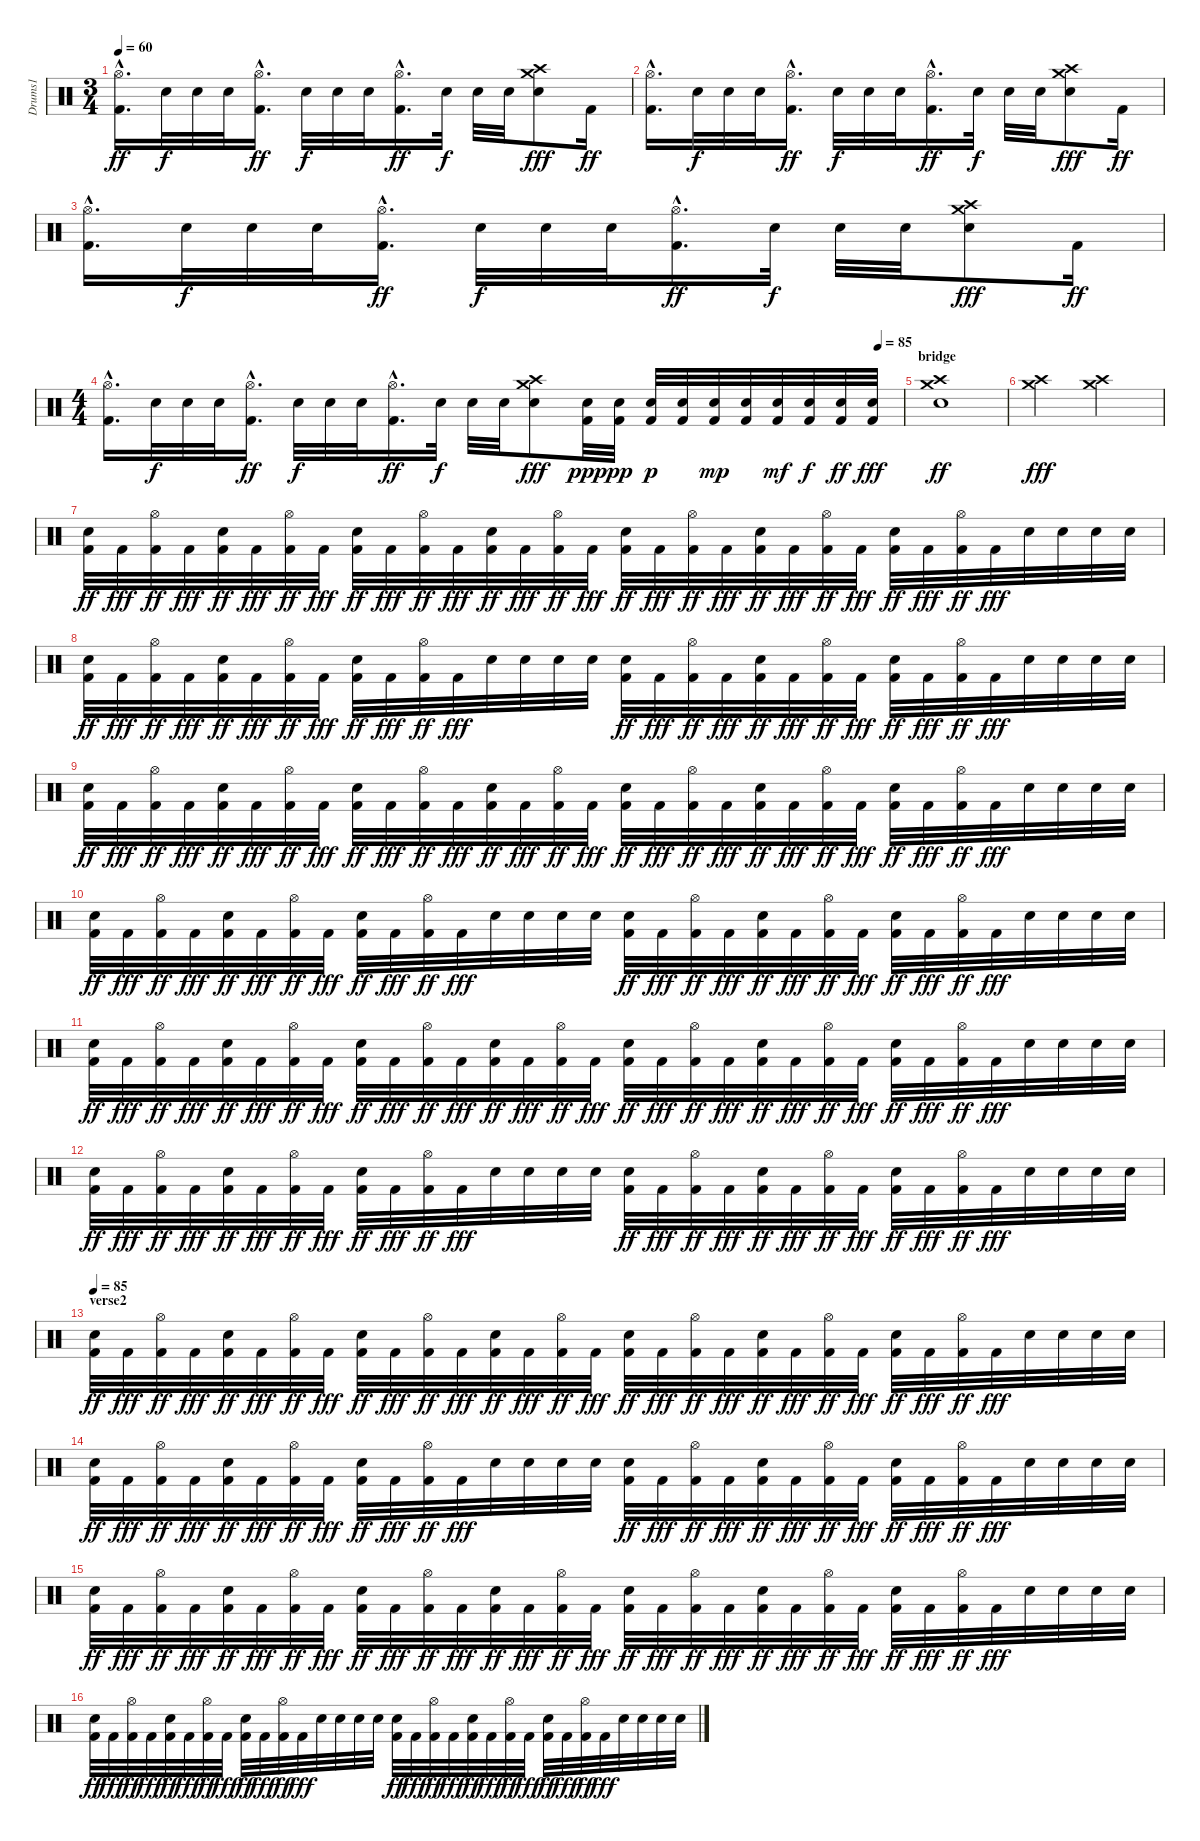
\track ("Drums1" "Drums1") {instrument percussion}
\staff {score}
\articulation defaults
\ts (3 4)
\tempo 60
\clef neutral
\ks c
("Hi-Hat (open)"{hac} "Kick (hit) 2"{hac}).16{d dy ff} "Electric Snare (hit)".32{dy f} "Electric Snare (hit)".32 "Electric Snare (hit)".32 ("Hi-Hat (open)"{hac} "Kick (hit) 2"{hac}).16{d dy ff} "Electric Snare (hit)".32{dy f} "Electric Snare (hit)".32 "Electric Snare (hit)".32 ("Hi-Hat (open)"{hac} "Kick (hit) 2"{hac}).16{d dy ff} "Electric Snare (hit)".32{dy f} "Electric Snare (hit)".32 "Electric Snare (hit)".32 ("Crash medium (hit)" "Electric Snare (hit)" "Crash high (hit)").8{dy fff} "Kick (hit) 2".16{dy ff} |
("Hi-Hat (open)"{hac} "Kick (hit) 2"{hac}).16{d} "Electric Snare (hit)".32{dy f} "Electric Snare (hit)".32 "Electric Snare (hit)".32 ("Hi-Hat (open)"{hac} "Kick (hit) 2"{hac}).16{d dy ff} "Electric Snare (hit)".32{dy f} "Electric Snare (hit)".32 "Electric Snare (hit)".32 ("Hi-Hat (open)"{hac} "Kick (hit) 2"{hac}).16{d dy ff} "Electric Snare (hit)".32{dy f} "Electric Snare (hit)".32 "Electric Snare (hit)".32 ("Crash medium (hit)" "Electric Snare (hit)" "Crash high (hit)").8{dy fff} "Kick (hit) 2".16{dy ff} |
("Hi-Hat (open)"{hac} "Kick (hit) 2"{hac}).16{d} "Electric Snare (hit)".32{dy f} "Electric Snare (hit)".32 "Electric Snare (hit)".32 ("Hi-Hat (open)"{hac} "Kick (hit) 2"{hac}).16{d dy ff} "Electric Snare (hit)".32{dy f} "Electric Snare (hit)".32 "Electric Snare (hit)".32 ("Hi-Hat (open)"{hac} "Kick (hit) 2"{hac}).16{d dy ff} "Electric Snare (hit)".32{dy f} "Electric Snare (hit)".32 "Electric Snare (hit)".32 ("Crash medium (hit)" "Electric Snare (hit)" "Crash high (hit)").8{dy fff} "Kick (hit) 2".16{dy ff} |
\ts (4 4)
\tempo (85 0.96875)
("Hi-Hat (open)"{hac} "Kick (hit) 2"{hac}).16{d} "Electric Snare (hit)".32{dy f} "Electric Snare (hit)".32 "Electric Snare (hit)".32 ("Hi-Hat (open)"{hac} "Kick (hit) 2"{hac}).16{d dy ff} "Electric Snare (hit)".32{dy f} "Electric Snare (hit)".32 "Electric Snare (hit)".32 ("Hi-Hat (open)"{hac} "Kick (hit) 2"{hac}).16{d dy ff} "Electric Snare (hit)".32{dy f} "Electric Snare (hit)".32 "Electric Snare (hit)".32 ("Crash medium (hit)" "Electric Snare (hit)" "Crash high (hit)").8{dy fff} ("Electric Snare (hit)" "Kick (hit) 2").32{dy ppp} ("Electric Snare (hit)" "Kick (hit) 2").32{dy pp} ("Electric Snare (hit)" "Kick (hit) 2").32{dy p} ("Electric Snare (hit)" "Kick (hit) 2").32 ("Electric Snare (hit)" "Kick (hit) 2").32{dy mp} ("Electric Snare (hit)" "Kick (hit) 2").32 ("Electric Snare (hit)" "Kick (hit) 2").32{dy mf} ("Electric Snare (hit)" "Kick (hit) 2").32{dy f} ("Electric Snare (hit)" "Kick (hit) 2").32{dy ff} ("Electric Snare (hit)" "Kick (hit) 2").32{dy fff} |
\section ("" "bridge")
("Crash high (hit)" "Crash medium (hit)" "Electric Snare (hit)").1{dy ff} |
("Crash medium (hit)" "Crash high (hit)").2{dy fff} ("Crash medium (hit)" "Crash high (hit)").2 |
("Kick (hit) 2" "Electric Snare (hit)").32{dy ff} "Kick (hit) 2".32{dy fff} ("Kick (hit) 2" "Hi-Hat (open)").32{dy ff} "Kick (hit) 2".32{dy fff} ("Kick (hit) 2" "Electric Snare (hit)").32{dy ff} "Kick (hit) 2".32{dy fff} ("Kick (hit) 2" "Hi-Hat (open)").32{dy ff} "Kick (hit) 2".32{dy fff} ("Kick (hit) 2" "Electric Snare (hit)").32{dy ff} "Kick (hit) 2".32{dy fff} ("Kick (hit) 2" "Hi-Hat (open)").32{dy ff} "Kick (hit) 2".32{dy fff} ("Kick (hit) 2" "Electric Snare (hit)").32{dy ff} "Kick (hit) 2".32{dy fff} ("Kick (hit) 2" "Hi-Hat (open)").32{dy ff} "Kick (hit) 2".32{dy fff} ("Kick (hit) 2" "Electric Snare (hit)").32{dy ff} "Kick (hit) 2".32{dy fff} ("Kick (hit) 2" "Hi-Hat (open)").32{dy ff} "Kick (hit) 2".32{dy fff} ("Kick (hit) 2" "Electric Snare (hit)").32{dy ff} "Kick (hit) 2".32{dy fff} ("Kick (hit) 2" "Hi-Hat (open)").32{dy ff} "Kick (hit) 2".32{dy fff} ("Kick (hit) 2" "Electric Snare (hit)").32{dy ff} "Kick (hit) 2".32{dy fff} ("Kick (hit) 2" "Hi-Hat (open)").32{dy ff} "Kick (hit) 2".32{dy fff} "Electric Snare (hit)".32 "Electric Snare (hit)".32 "Electric Snare (hit)".32 "Electric Snare (hit)".32 |
("Kick (hit) 2" "Electric Snare (hit)").32{dy ff} "Kick (hit) 2".32{dy fff} ("Kick (hit) 2" "Hi-Hat (open)").32{dy ff} "Kick (hit) 2".32{dy fff} ("Kick (hit) 2" "Electric Snare (hit)").32{dy ff} "Kick (hit) 2".32{dy fff} ("Kick (hit) 2" "Hi-Hat (open)").32{dy ff} "Kick (hit) 2".32{dy fff} ("Kick (hit) 2" "Electric Snare (hit)").32{dy ff} "Kick (hit) 2".32{dy fff} ("Kick (hit) 2" "Hi-Hat (open)").32{dy ff} "Kick (hit) 2".32{dy fff} "Electric Snare (hit)".32 "Electric Snare (hit)".32 "Electric Snare (hit)".32 "Electric Snare (hit)".32 ("Kick (hit) 2" "Electric Snare (hit)").32{dy ff} "Kick (hit) 2".32{dy fff} ("Kick (hit) 2" "Hi-Hat (open)").32{dy ff} "Kick (hit) 2".32{dy fff} ("Kick (hit) 2" "Electric Snare (hit)").32{dy ff} "Kick (hit) 2".32{dy fff} ("Kick (hit) 2" "Hi-Hat (open)").32{dy ff} "Kick (hit) 2".32{dy fff} ("Kick (hit) 2" "Electric Snare (hit)").32{dy ff} "Kick (hit) 2".32{dy fff} ("Kick (hit) 2" "Hi-Hat (open)").32{dy ff} "Kick (hit) 2".32{dy fff} "Electric Snare (hit)".32 "Electric Snare (hit)".32 "Electric Snare (hit)".32 "Electric Snare (hit)".32 |
("Kick (hit) 2" "Electric Snare (hit)").32{dy ff} "Kick (hit) 2".32{dy fff} ("Kick (hit) 2" "Hi-Hat (open)").32{dy ff} "Kick (hit) 2".32{dy fff} ("Kick (hit) 2" "Electric Snare (hit)").32{dy ff} "Kick (hit) 2".32{dy fff} ("Kick (hit) 2" "Hi-Hat (open)").32{dy ff} "Kick (hit) 2".32{dy fff} ("Kick (hit) 2" "Electric Snare (hit)").32{dy ff} "Kick (hit) 2".32{dy fff} ("Kick (hit) 2" "Hi-Hat (open)").32{dy ff} "Kick (hit) 2".32{dy fff} ("Kick (hit) 2" "Electric Snare (hit)").32{dy ff} "Kick (hit) 2".32{dy fff} ("Kick (hit) 2" "Hi-Hat (open)").32{dy ff} "Kick (hit) 2".32{dy fff} ("Kick (hit) 2" "Electric Snare (hit)").32{dy ff} "Kick (hit) 2".32{dy fff} ("Kick (hit) 2" "Hi-Hat (open)").32{dy ff} "Kick (hit) 2".32{dy fff} ("Kick (hit) 2" "Electric Snare (hit)").32{dy ff} "Kick (hit) 2".32{dy fff} ("Kick (hit) 2" "Hi-Hat (open)").32{dy ff} "Kick (hit) 2".32{dy fff} ("Kick (hit) 2" "Electric Snare (hit)").32{dy ff} "Kick (hit) 2".32{dy fff} ("Kick (hit) 2" "Hi-Hat (open)").32{dy ff} "Kick (hit) 2".32{dy fff} "Electric Snare (hit)".32 "Electric Snare (hit)".32 "Electric Snare (hit)".32 "Electric Snare (hit)".32 |
("Kick (hit) 2" "Electric Snare (hit)").32{dy ff} "Kick (hit) 2".32{dy fff} ("Kick (hit) 2" "Hi-Hat (open)").32{dy ff} "Kick (hit) 2".32{dy fff} ("Kick (hit) 2" "Electric Snare (hit)").32{dy ff} "Kick (hit) 2".32{dy fff} ("Kick (hit) 2" "Hi-Hat (open)").32{dy ff} "Kick (hit) 2".32{dy fff} ("Kick (hit) 2" "Electric Snare (hit)").32{dy ff} "Kick (hit) 2".32{dy fff} ("Kick (hit) 2" "Hi-Hat (open)").32{dy ff} "Kick (hit) 2".32{dy fff} "Electric Snare (hit)".32 "Electric Snare (hit)".32 "Electric Snare (hit)".32 "Electric Snare (hit)".32 ("Kick (hit) 2" "Electric Snare (hit)").32{dy ff} "Kick (hit) 2".32{dy fff} ("Kick (hit) 2" "Hi-Hat (open)").32{dy ff} "Kick (hit) 2".32{dy fff} ("Kick (hit) 2" "Electric Snare (hit)").32{dy ff} "Kick (hit) 2".32{dy fff} ("Kick (hit) 2" "Hi-Hat (open)").32{dy ff} "Kick (hit) 2".32{dy fff} ("Kick (hit) 2" "Electric Snare (hit)").32{dy ff} "Kick (hit) 2".32{dy fff} ("Kick (hit) 2" "Hi-Hat (open)").32{dy ff} "Kick (hit) 2".32{dy fff} "Electric Snare (hit)".32 "Electric Snare (hit)".32 "Electric Snare (hit)".32 "Electric Snare (hit)".32 |
("Kick (hit) 2" "Electric Snare (hit)").32{dy ff} "Kick (hit) 2".32{dy fff} ("Kick (hit) 2" "Hi-Hat (open)").32{dy ff} "Kick (hit) 2".32{dy fff} ("Kick (hit) 2" "Electric Snare (hit)").32{dy ff} "Kick (hit) 2".32{dy fff} ("Kick (hit) 2" "Hi-Hat (open)").32{dy ff} "Kick (hit) 2".32{dy fff} ("Kick (hit) 2" "Electric Snare (hit)").32{dy ff} "Kick (hit) 2".32{dy fff} ("Kick (hit) 2" "Hi-Hat (open)").32{dy ff} "Kick (hit) 2".32{dy fff} ("Kick (hit) 2" "Electric Snare (hit)").32{dy ff} "Kick (hit) 2".32{dy fff} ("Kick (hit) 2" "Hi-Hat (open)").32{dy ff} "Kick (hit) 2".32{dy fff} ("Kick (hit) 2" "Electric Snare (hit)").32{dy ff} "Kick (hit) 2".32{dy fff} ("Kick (hit) 2" "Hi-Hat (open)").32{dy ff} "Kick (hit) 2".32{dy fff} ("Kick (hit) 2" "Electric Snare (hit)").32{dy ff} "Kick (hit) 2".32{dy fff} ("Kick (hit) 2" "Hi-Hat (open)").32{dy ff} "Kick (hit) 2".32{dy fff} ("Kick (hit) 2" "Electric Snare (hit)").32{dy ff} "Kick (hit) 2".32{dy fff} ("Kick (hit) 2" "Hi-Hat (open)").32{dy ff} "Kick (hit) 2".32{dy fff} "Electric Snare (hit)".32 "Electric Snare (hit)".32 "Electric Snare (hit)".32 "Electric Snare (hit)".32 |
("Kick (hit) 2" "Electric Snare (hit)").32{dy ff} "Kick (hit) 2".32{dy fff} ("Kick (hit) 2" "Hi-Hat (open)").32{dy ff} "Kick (hit) 2".32{dy fff} ("Kick (hit) 2" "Electric Snare (hit)").32{dy ff} "Kick (hit) 2".32{dy fff} ("Kick (hit) 2" "Hi-Hat (open)").32{dy ff} "Kick (hit) 2".32{dy fff} ("Kick (hit) 2" "Electric Snare (hit)").32{dy ff} "Kick (hit) 2".32{dy fff} ("Kick (hit) 2" "Hi-Hat (open)").32{dy ff} "Kick (hit) 2".32{dy fff} "Electric Snare (hit)".32 "Electric Snare (hit)".32 "Electric Snare (hit)".32 "Electric Snare (hit)".32 ("Kick (hit) 2" "Electric Snare (hit)").32{dy ff} "Kick (hit) 2".32{dy fff} ("Kick (hit) 2" "Hi-Hat (open)").32{dy ff} "Kick (hit) 2".32{dy fff} ("Kick (hit) 2" "Electric Snare (hit)").32{dy ff} "Kick (hit) 2".32{dy fff} ("Kick (hit) 2" "Hi-Hat (open)").32{dy ff} "Kick (hit) 2".32{dy fff} ("Kick (hit) 2" "Electric Snare (hit)").32{dy ff} "Kick (hit) 2".32{dy fff} ("Kick (hit) 2" "Hi-Hat (open)").32{dy ff} "Kick (hit) 2".32{dy fff} "Electric Snare (hit)".32 "Electric Snare (hit)".32 "Electric Snare (hit)".32 "Electric Snare (hit)".32 |
\section ("" "verse2")
\tempo 85
("Kick (hit) 2" "Electric Snare (hit)").32{dy ff} "Kick (hit) 2".32{dy fff} ("Kick (hit) 2" "Hi-Hat (open)").32{dy ff} "Kick (hit) 2".32{dy fff} ("Kick (hit) 2" "Electric Snare (hit)").32{dy ff} "Kick (hit) 2".32{dy fff} ("Kick (hit) 2" "Hi-Hat (open)").32{dy ff} "Kick (hit) 2".32{dy fff} ("Kick (hit) 2" "Electric Snare (hit)").32{dy ff} "Kick (hit) 2".32{dy fff} ("Kick (hit) 2" "Hi-Hat (open)").32{dy ff} "Kick (hit) 2".32{dy fff} ("Kick (hit) 2" "Electric Snare (hit)").32{dy ff} "Kick (hit) 2".32{dy fff} ("Kick (hit) 2" "Hi-Hat (open)").32{dy ff} "Kick (hit) 2".32{dy fff} ("Kick (hit) 2" "Electric Snare (hit)").32{dy ff} "Kick (hit) 2".32{dy fff} ("Kick (hit) 2" "Hi-Hat (open)").32{dy ff} "Kick (hit) 2".32{dy fff} ("Kick (hit) 2" "Electric Snare (hit)").32{dy ff} "Kick (hit) 2".32{dy fff} ("Kick (hit) 2" "Hi-Hat (open)").32{dy ff} "Kick (hit) 2".32{dy fff} ("Kick (hit) 2" "Electric Snare (hit)").32{dy ff} "Kick (hit) 2".32{dy fff} ("Kick (hit) 2" "Hi-Hat (open)").32{dy ff} "Kick (hit) 2".32{dy fff} "Electric Snare (hit)".32 "Electric Snare (hit)".32 "Electric Snare (hit)".32 "Electric Snare (hit)".32 |
("Kick (hit) 2" "Electric Snare (hit)").32{dy ff} "Kick (hit) 2".32{dy fff} ("Kick (hit) 2" "Hi-Hat (open)").32{dy ff} "Kick (hit) 2".32{dy fff} ("Kick (hit) 2" "Electric Snare (hit)").32{dy ff} "Kick (hit) 2".32{dy fff} ("Kick (hit) 2" "Hi-Hat (open)").32{dy ff} "Kick (hit) 2".32{dy fff} ("Kick (hit) 2" "Electric Snare (hit)").32{dy ff} "Kick (hit) 2".32{dy fff} ("Kick (hit) 2" "Hi-Hat (open)").32{dy ff} "Kick (hit) 2".32{dy fff} "Electric Snare (hit)".32 "Electric Snare (hit)".32 "Electric Snare (hit)".32 "Electric Snare (hit)".32 ("Kick (hit) 2" "Electric Snare (hit)").32{dy ff} "Kick (hit) 2".32{dy fff} ("Kick (hit) 2" "Hi-Hat (open)").32{dy ff} "Kick (hit) 2".32{dy fff} ("Kick (hit) 2" "Electric Snare (hit)").32{dy ff} "Kick (hit) 2".32{dy fff} ("Kick (hit) 2" "Hi-Hat (open)").32{dy ff} "Kick (hit) 2".32{dy fff} ("Kick (hit) 2" "Electric Snare (hit)").32{dy ff} "Kick (hit) 2".32{dy fff} ("Kick (hit) 2" "Hi-Hat (open)").32{dy ff} "Kick (hit) 2".32{dy fff} "Electric Snare (hit)".32 "Electric Snare (hit)".32 "Electric Snare (hit)".32 "Electric Snare (hit)".32 |
("Kick (hit) 2" "Electric Snare (hit)").32{dy ff} "Kick (hit) 2".32{dy fff} ("Kick (hit) 2" "Hi-Hat (open)").32{dy ff} "Kick (hit) 2".32{dy fff} ("Kick (hit) 2" "Electric Snare (hit)").32{dy ff} "Kick (hit) 2".32{dy fff} ("Kick (hit) 2" "Hi-Hat (open)").32{dy ff} "Kick (hit) 2".32{dy fff} ("Kick (hit) 2" "Electric Snare (hit)").32{dy ff} "Kick (hit) 2".32{dy fff} ("Kick (hit) 2" "Hi-Hat (open)").32{dy ff} "Kick (hit) 2".32{dy fff} ("Kick (hit) 2" "Electric Snare (hit)").32{dy ff} "Kick (hit) 2".32{dy fff} ("Kick (hit) 2" "Hi-Hat (open)").32{dy ff} "Kick (hit) 2".32{dy fff} ("Kick (hit) 2" "Electric Snare (hit)").32{dy ff} "Kick (hit) 2".32{dy fff} ("Kick (hit) 2" "Hi-Hat (open)").32{dy ff} "Kick (hit) 2".32{dy fff} ("Kick (hit) 2" "Electric Snare (hit)").32{dy ff} "Kick (hit) 2".32{dy fff} ("Kick (hit) 2" "Hi-Hat (open)").32{dy ff} "Kick (hit) 2".32{dy fff} ("Kick (hit) 2" "Electric Snare (hit)").32{dy ff} "Kick (hit) 2".32{dy fff} ("Kick (hit) 2" "Hi-Hat (open)").32{dy ff} "Kick (hit) 2".32{dy fff} "Electric Snare (hit)".32 "Electric Snare (hit)".32 "Electric Snare (hit)".32 "Electric Snare (hit)".32 |
("Kick (hit) 2" "Electric Snare (hit)").32{dy ff} "Kick (hit) 2".32{dy fff} ("Kick (hit) 2" "Hi-Hat (open)").32{dy ff} "Kick (hit) 2".32{dy fff} ("Kick (hit) 2" "Electric Snare (hit)").32{dy ff} "Kick (hit) 2".32{dy fff} ("Kick (hit) 2" "Hi-Hat (open)").32{dy ff} "Kick (hit) 2".32{dy fff} ("Kick (hit) 2" "Electric Snare (hit)").32{dy ff} "Kick (hit) 2".32{dy fff} ("Kick (hit) 2" "Hi-Hat (open)").32{dy ff} "Kick (hit) 2".32{dy fff} "Electric Snare (hit)".32 "Electric Snare (hit)".32 "Electric Snare (hit)".32 "Electric Snare (hit)".32 ("Kick (hit) 2" "Electric Snare (hit)").32{dy ff} "Kick (hit) 2".32{dy fff} ("Kick (hit) 2" "Hi-Hat (open)").32{dy ff} "Kick (hit) 2".32{dy fff} ("Kick (hit) 2" "Electric Snare (hit)").32{dy ff} "Kick (hit) 2".32{dy fff} ("Kick (hit) 2" "Hi-Hat (open)").32{dy ff} "Kick (hit) 2".32{dy fff} ("Kick (hit) 2" "Electric Snare (hit)").32{dy ff} "Kick (hit) 2".32{dy fff} ("Kick (hit) 2" "Hi-Hat (open)").32{dy ff} "Kick (hit) 2".32{dy fff} "Electric Snare (hit)".32 "Electric Snare (hit)".32 "Electric Snare (hit)".32 "Electric Snare (hit)".32
